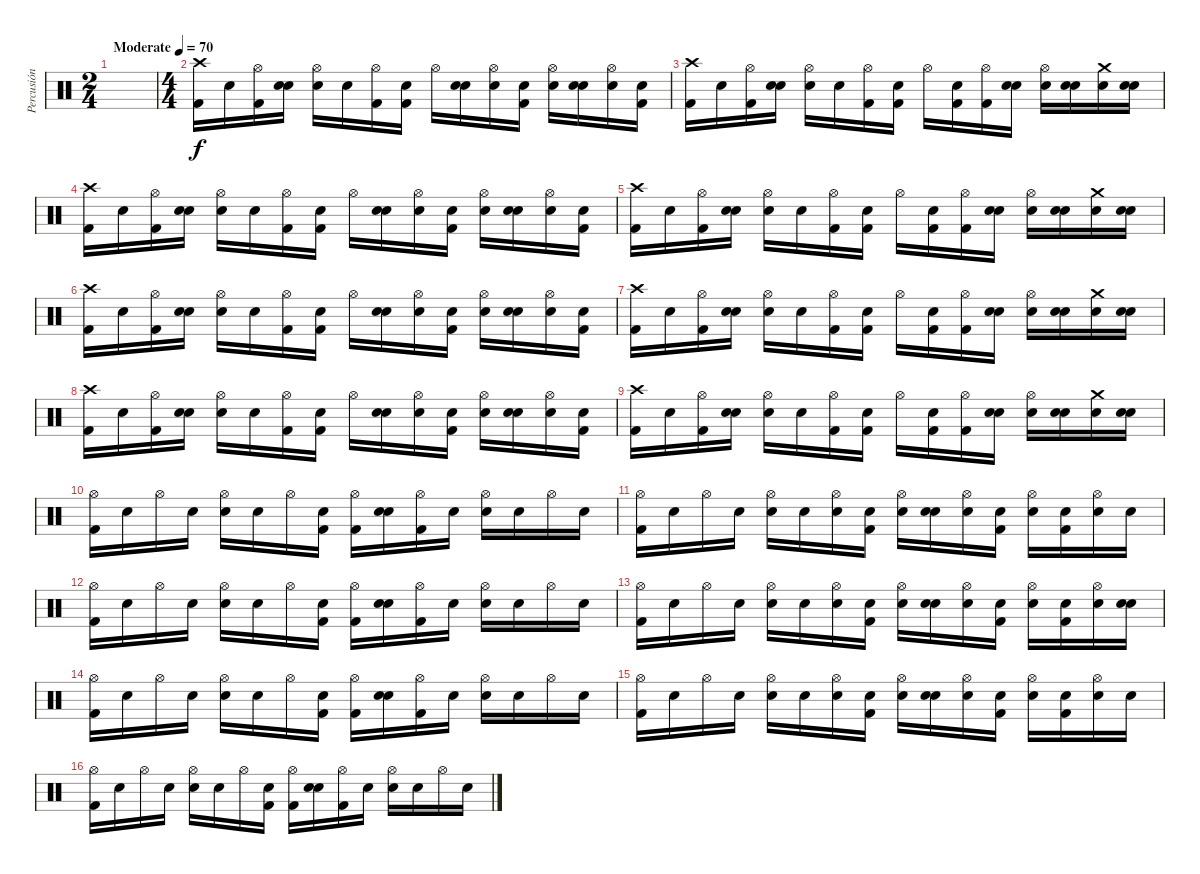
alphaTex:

\track ("Percusión" "Percusión") {instrument percussion}
\staff {score}
\articulation defaults
\ts (2 4)
\tempo (70 "Moderate")
\clef neutral
\ks c
|
\ts (4 4)
("Crash high (hit)" "Kick (hit) 2").16 "Snare (hit)".16 ("Hi-Hat (open)" "Kick (hit) 2").16 ("Snare (hit)" "Snare (hit)").16 ("Hi-Hat (open)" "Electric Snare (hit)").16 "Snare (hit)".16 ("Hi-Hat (open)" "Kick (hit) 2").16 ("Snare (hit)" "Kick (hit) 2").16 "Hi-Hat (open)".16 ("Snare (hit)" "Electric Snare (hit)").16 ("Hi-Hat (open)" "Snare (hit)").16 ("Snare (hit)" "Kick (hit) 2").16 ("Hi-Hat (open)" "Electric Snare (hit)").16 ("Snare (hit)" "Electric Snare (hit)").16 ("Hi-Hat (open)" "Snare (hit)").16 ("Snare (hit)" "Kick (hit) 2").16 |
("Crash high (hit)" "Kick (hit) 2").16 "Snare (hit)".16 ("Hi-Hat (open)" "Kick (hit) 2").16 ("Snare (hit)" "Snare (hit)").16 ("Hi-Hat (open)" "Electric Snare (hit)").16 "Snare (hit)".16 ("Hi-Hat (open)" "Kick (hit) 2").16 ("Snare (hit)" "Kick (hit) 2").16 "Hi-Hat (open)".16 ("Snare (hit)" "Kick (hit) 2").16 ("Hi-Hat (open)" "Kick (hit) 2").16 ("Snare (hit)" "Snare (hit)").16 ("Hi-Hat (open)" "Electric Snare (hit)").16 ("Snare (hit)" "Electric Snare (hit)").16 ("Crash medium (hit)" "Electric Snare (hit)").16 ("Snare (hit)" "Electric Snare (hit)").16 |
("Crash high (hit)" "Kick (hit) 2").16 "Snare (hit)".16 ("Hi-Hat (open)" "Kick (hit) 2").16 ("Snare (hit)" "Snare (hit)").16 ("Hi-Hat (open)" "Electric Snare (hit)").16 "Snare (hit)".16 ("Hi-Hat (open)" "Kick (hit) 2").16 ("Snare (hit)" "Kick (hit) 2").16 "Hi-Hat (open)".16 ("Snare (hit)" "Electric Snare (hit)").16 ("Hi-Hat (open)" "Snare (hit)").16 ("Snare (hit)" "Kick (hit) 2").16 ("Hi-Hat (open)" "Electric Snare (hit)").16 ("Snare (hit)" "Electric Snare (hit)").16 ("Hi-Hat (open)" "Snare (hit)").16 ("Snare (hit)" "Kick (hit) 2").16 |
("Crash high (hit)" "Kick (hit) 2").16 "Snare (hit)".16 ("Hi-Hat (open)" "Kick (hit) 2").16 ("Snare (hit)" "Snare (hit)").16 ("Hi-Hat (open)" "Electric Snare (hit)").16 "Snare (hit)".16 ("Hi-Hat (open)" "Kick (hit) 2").16 ("Snare (hit)" "Kick (hit) 2").16 "Hi-Hat (open)".16 ("Snare (hit)" "Kick (hit) 2").16 ("Hi-Hat (open)" "Kick (hit) 2").16 ("Snare (hit)" "Snare (hit)").16 ("Hi-Hat (open)" "Electric Snare (hit)").16 ("Snare (hit)" "Electric Snare (hit)").16 ("Crash medium (hit)" "Electric Snare (hit)").16 ("Snare (hit)" "Electric Snare (hit)").16 |
("Crash high (hit)" "Kick (hit) 2").16 "Snare (hit)".16 ("Hi-Hat (open)" "Kick (hit) 2").16 ("Snare (hit)" "Snare (hit)").16 ("Hi-Hat (open)" "Electric Snare (hit)").16 "Snare (hit)".16 ("Hi-Hat (open)" "Kick (hit) 2").16 ("Snare (hit)" "Kick (hit) 2").16 "Hi-Hat (open)".16 ("Snare (hit)" "Electric Snare (hit)").16 ("Hi-Hat (open)" "Snare (hit)").16 ("Snare (hit)" "Kick (hit) 2").16 ("Hi-Hat (open)" "Electric Snare (hit)").16 ("Snare (hit)" "Electric Snare (hit)").16 ("Hi-Hat (open)" "Snare (hit)").16 ("Snare (hit)" "Kick (hit) 2").16 |
("Crash high (hit)" "Kick (hit) 2").16 "Snare (hit)".16 ("Hi-Hat (open)" "Kick (hit) 2").16 ("Snare (hit)" "Snare (hit)").16 ("Hi-Hat (open)" "Electric Snare (hit)").16 "Snare (hit)".16 ("Hi-Hat (open)" "Kick (hit) 2").16 ("Snare (hit)" "Kick (hit) 2").16 "Hi-Hat (open)".16 ("Snare (hit)" "Kick (hit) 2").16 ("Hi-Hat (open)" "Kick (hit) 2").16 ("Snare (hit)" "Snare (hit)").16 ("Hi-Hat (open)" "Electric Snare (hit)").16 ("Snare (hit)" "Electric Snare (hit)").16 ("Crash medium (hit)" "Electric Snare (hit)").16 ("Snare (hit)" "Electric Snare (hit)").16 |
("Crash high (hit)" "Kick (hit) 2").16 "Snare (hit)".16 ("Hi-Hat (open)" "Kick (hit) 2").16 ("Snare (hit)" "Snare (hit)").16 ("Hi-Hat (open)" "Electric Snare (hit)").16 "Snare (hit)".16 ("Hi-Hat (open)" "Kick (hit) 2").16 ("Snare (hit)" "Kick (hit) 2").16 "Hi-Hat (open)".16 ("Snare (hit)" "Electric Snare (hit)").16 ("Hi-Hat (open)" "Snare (hit)").16 ("Snare (hit)" "Kick (hit) 2").16 ("Hi-Hat (open)" "Electric Snare (hit)").16 ("Snare (hit)" "Electric Snare (hit)").16 ("Hi-Hat (open)" "Snare (hit)").16 ("Snare (hit)" "Kick (hit) 2").16 |
("Crash high (hit)" "Kick (hit) 2").16 "Snare (hit)".16 ("Hi-Hat (open)" "Kick (hit) 2").16 ("Snare (hit)" "Snare (hit)").16 ("Hi-Hat (open)" "Electric Snare (hit)").16 "Snare (hit)".16 ("Hi-Hat (open)" "Kick (hit) 2").16 ("Snare (hit)" "Kick (hit) 2").16 "Hi-Hat (open)".16 ("Snare (hit)" "Kick (hit) 2").16 ("Hi-Hat (open)" "Kick (hit) 2").16 ("Snare (hit)" "Snare (hit)").16 ("Hi-Hat (open)" "Electric Snare (hit)").16 ("Snare (hit)" "Electric Snare (hit)").16 ("Crash medium (hit)" "Electric Snare (hit)").16 ("Snare (hit)" "Electric Snare (hit)").16 |
("Hi-Hat (open)" "Kick (hit) 2").16 "Snare (hit)".16 "Hi-Hat (open)".16 "Snare (hit)".16 ("Hi-Hat (open)" "Electric Snare (hit)").16 "Snare (hit)".16 "Hi-Hat (open)".16 ("Snare (hit)" "Kick (hit) 2").16 ("Hi-Hat (open)" "Kick (hit) 2").16 ("Snare (hit)" "Snare (hit)").16 ("Hi-Hat (open)" "Kick (hit) 2").16 "Snare (hit)".16 ("Hi-Hat (open)" "Electric Snare (hit)").16 "Snare (hit)".16 "Hi-Hat (open)".16 "Snare (hit)".16 |
("Hi-Hat (open)" "Kick (hit) 2").16 "Snare (hit)".16 "Hi-Hat (open)".16 "Snare (hit)".16 ("Hi-Hat (open)" "Electric Snare (hit)").16 "Snare (hit)".16 ("Hi-Hat (open)" "Snare (hit)").16 ("Snare (hit)" "Kick (hit) 2").16 ("Hi-Hat (open)" "Snare (hit)").16 ("Snare (hit)" "Electric Snare (hit)").16 ("Hi-Hat (open)" "Snare (hit)").16 ("Snare (hit)" "Kick (hit) 2").16 ("Hi-Hat (open)" "Electric Snare (hit)").16 ("Snare (hit)" "Kick (hit) 2").16 ("Hi-Hat (open)" "Snare (hit)").16 "Snare (hit)".16 |
("Hi-Hat (open)" "Kick (hit) 2").16 "Snare (hit)".16 "Hi-Hat (open)".16 "Snare (hit)".16 ("Hi-Hat (open)" "Electric Snare (hit)").16 "Snare (hit)".16 "Hi-Hat (open)".16 ("Snare (hit)" "Kick (hit) 2").16 ("Hi-Hat (open)" "Kick (hit) 2").16 ("Snare (hit)" "Snare (hit)").16 ("Hi-Hat (open)" "Kick (hit) 2").16 "Snare (hit)".16 ("Hi-Hat (open)" "Electric Snare (hit)").16 "Snare (hit)".16 "Hi-Hat (open)".16 "Snare (hit)".16 |
("Hi-Hat (open)" "Kick (hit) 2").16 "Snare (hit)".16 "Hi-Hat (open)".16 "Snare (hit)".16 ("Hi-Hat (open)" "Electric Snare (hit)").16 "Snare (hit)".16 ("Hi-Hat (open)" "Snare (hit)").16 ("Snare (hit)" "Kick (hit) 2").16 ("Hi-Hat (open)" "Snare (hit)").16 ("Snare (hit)" "Electric Snare (hit)").16 ("Hi-Hat (open)" "Snare (hit)").16 ("Snare (hit)" "Kick (hit) 2").16 ("Hi-Hat (open)" "Electric Snare (hit)").16 ("Snare (hit)" "Kick (hit) 2").16 ("Hi-Hat (open)" "Electric Snare (hit)").16 ("Snare (hit)" "Electric Snare (hit)").16 |
("Hi-Hat (open)" "Kick (hit) 2").16 "Snare (hit)".16 "Hi-Hat (open)".16 "Snare (hit)".16 ("Hi-Hat (open)" "Electric Snare (hit)").16 "Snare (hit)".16 "Hi-Hat (open)".16 ("Snare (hit)" "Kick (hit) 2").16 ("Hi-Hat (open)" "Kick (hit) 2").16 ("Snare (hit)" "Snare (hit)").16 ("Hi-Hat (open)" "Kick (hit) 2").16 "Snare (hit)".16 ("Hi-Hat (open)" "Electric Snare (hit)").16 "Snare (hit)".16 "Hi-Hat (open)".16 "Snare (hit)".16 |
("Hi-Hat (open)" "Kick (hit) 2").16 "Snare (hit)".16 "Hi-Hat (open)".16 "Snare (hit)".16 ("Hi-Hat (open)" "Electric Snare (hit)").16 "Snare (hit)".16 ("Hi-Hat (open)" "Snare (hit)").16 ("Snare (hit)" "Kick (hit) 2").16 ("Hi-Hat (open)" "Snare (hit)").16 ("Snare (hit)" "Electric Snare (hit)").16 ("Hi-Hat (open)" "Snare (hit)").16 ("Snare (hit)" "Kick (hit) 2").16 ("Hi-Hat (open)" "Electric Snare (hit)").16 ("Snare (hit)" "Kick (hit) 2").16 ("Hi-Hat (open)" "Snare (hit)").16 "Snare (hit)".16 |
("Hi-Hat (open)" "Kick (hit) 2").16 "Snare (hit)".16 "Hi-Hat (open)".16 "Snare (hit)".16 ("Hi-Hat (open)" "Electric Snare (hit)").16 "Snare (hit)".16 "Hi-Hat (open)".16 ("Snare (hit)" "Kick (hit) 2").16 ("Hi-Hat (open)" "Kick (hit) 2").16 ("Snare (hit)" "Snare (hit)").16 ("Hi-Hat (open)" "Kick (hit) 2").16 "Snare (hit)".16 ("Hi-Hat (open)" "Electric Snare (hit)").16 "Snare (hit)".16 "Hi-Hat (open)".16 "Snare (hit)".16
